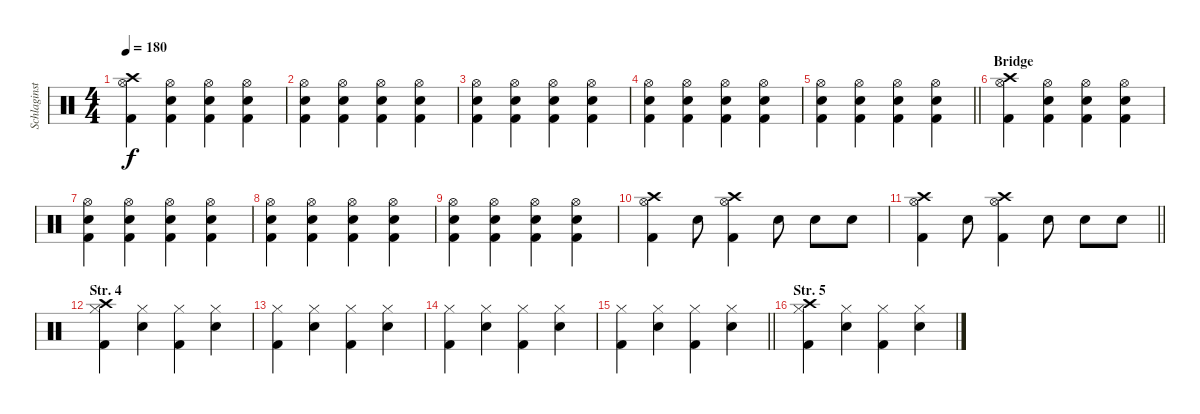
\track ("Schlaginstrumente - Auswahl" "Schlaginst") {instrument percussion}
\staff {score}
\articulation defaults
\ts (4 4)
\tempo 180
\clef neutral
\ks c
("Crash high (hit)" "Hi-Hat (open)" "Kick (hit) 2").4{dy f} ("Hi-Hat (open)" "Electric Snare (hit)" "Kick (hit) 2").4 ("Hi-Hat (open)" "Electric Snare (hit)" "Kick (hit) 2").4 ("Hi-Hat (open)" "Electric Snare (hit)" "Kick (hit) 2").4 |
("Hi-Hat (open)" "Electric Snare (hit)" "Kick (hit) 2").4 ("Hi-Hat (open)" "Electric Snare (hit)" "Kick (hit) 2").4 ("Hi-Hat (open)" "Electric Snare (hit)" "Kick (hit) 2").4 ("Hi-Hat (open)" "Electric Snare (hit)" "Kick (hit) 2").4 |
("Hi-Hat (open)" "Electric Snare (hit)" "Kick (hit) 2").4 ("Hi-Hat (open)" "Electric Snare (hit)" "Kick (hit) 2").4 ("Hi-Hat (open)" "Electric Snare (hit)" "Kick (hit) 2").4 ("Hi-Hat (open)" "Electric Snare (hit)" "Kick (hit) 2").4 |
("Hi-Hat (open)" "Electric Snare (hit)" "Kick (hit) 2").4 ("Hi-Hat (open)" "Electric Snare (hit)" "Kick (hit) 2").4 ("Hi-Hat (open)" "Electric Snare (hit)" "Kick (hit) 2").4 ("Hi-Hat (open)" "Electric Snare (hit)" "Kick (hit) 2").4 |
\barLineRight lightlight
("Hi-Hat (open)" "Electric Snare (hit)" "Kick (hit) 2").4 ("Hi-Hat (open)" "Electric Snare (hit)" "Kick (hit) 2").4 ("Hi-Hat (open)" "Electric Snare (hit)" "Kick (hit) 2").4 ("Hi-Hat (open)" "Electric Snare (hit)" "Kick (hit) 2").4 |
\section ("" "Bridge")
("Crash high (hit)" "Hi-Hat (open)" "Kick (hit) 2").4 ("Hi-Hat (open)" "Electric Snare (hit)" "Kick (hit) 2").4 ("Hi-Hat (open)" "Electric Snare (hit)" "Kick (hit) 2").4 ("Hi-Hat (open)" "Electric Snare (hit)" "Kick (hit) 2").4 |
("Hi-Hat (open)" "Electric Snare (hit)" "Kick (hit) 2").4 ("Hi-Hat (open)" "Electric Snare (hit)" "Kick (hit) 2").4 ("Hi-Hat (open)" "Electric Snare (hit)" "Kick (hit) 2").4 ("Hi-Hat (open)" "Electric Snare (hit)" "Kick (hit) 2").4 |
("Hi-Hat (open)" "Electric Snare (hit)" "Kick (hit) 2").4 ("Hi-Hat (open)" "Electric Snare (hit)" "Kick (hit) 2").4 ("Hi-Hat (open)" "Electric Snare (hit)" "Kick (hit) 2").4 ("Hi-Hat (open)" "Electric Snare (hit)" "Kick (hit) 2").4 |
("Hi-Hat (open)" "Electric Snare (hit)" "Kick (hit) 2").4 ("Hi-Hat (open)" "Electric Snare (hit)" "Kick (hit) 2").4 ("Hi-Hat (open)" "Electric Snare (hit)" "Kick (hit) 2").4 ("Hi-Hat (open)" "Electric Snare (hit)" "Kick (hit) 2").4 |
("Crash high (hit)" "Hi-Hat (open)" "Kick (hit) 2").4 "Electric Snare (hit)".8 ("Crash high (hit)" "Hi-Hat (open)" "Kick (hit) 2").4 "Electric Snare (hit)".8 "Electric Snare (hit)".8 "Electric Snare (hit)".8 |
\barLineRight lightlight
("Crash high (hit)" "Hi-Hat (open)" "Kick (hit) 2").4 "Electric Snare (hit)".8 ("Crash high (hit)" "Hi-Hat (open)" "Kick (hit) 2").4 "Electric Snare (hit)".8 "Electric Snare (hit)".8 "Electric Snare (hit)".8 |
\section ("" "Str. 4")
("Crash high (hit)" "Hi-Hat (closed)" "Kick (hit) 2").4 ("Hi-Hat (closed)" "Electric Snare (hit)").4 ("Hi-Hat (closed)" "Kick (hit) 2").4 ("Hi-Hat (closed)" "Electric Snare (hit)").4 |
("Hi-Hat (closed)" "Kick (hit) 2").4 ("Hi-Hat (closed)" "Electric Snare (hit)").4 ("Hi-Hat (closed)" "Kick (hit) 2").4 ("Hi-Hat (closed)" "Electric Snare (hit)").4 |
("Hi-Hat (closed)" "Kick (hit) 2").4 ("Hi-Hat (closed)" "Electric Snare (hit)").4 ("Hi-Hat (closed)" "Kick (hit) 2").4 ("Hi-Hat (closed)" "Electric Snare (hit)").4 |
\barLineRight lightlight
("Hi-Hat (closed)" "Kick (hit) 2").4 ("Hi-Hat (closed)" "Electric Snare (hit)").4 ("Hi-Hat (closed)" "Kick (hit) 2").4 ("Hi-Hat (closed)" "Electric Snare (hit)").4 |
\section ("" "Str. 5")
("Crash high (hit)" "Hi-Hat (closed)" "Kick (hit) 2").4 ("Hi-Hat (closed)" "Electric Snare (hit)").4 ("Hi-Hat (closed)" "Kick (hit) 2").4 ("Hi-Hat (closed)" "Electric Snare (hit)").4
